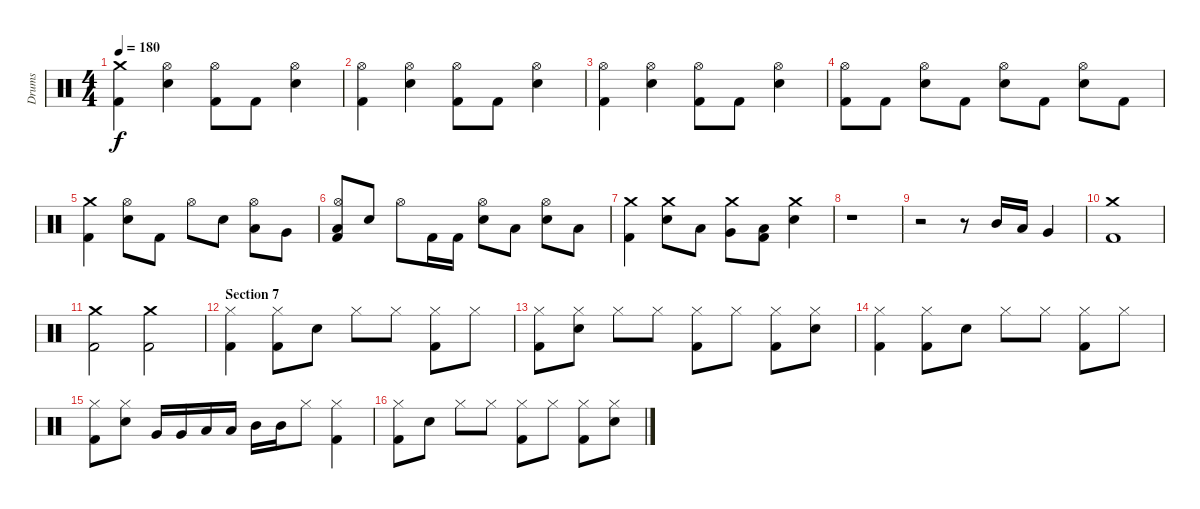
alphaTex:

\track ("Drums" "Drums") {instrument percussion}
\staff {score}
\articulation defaults
\ts (4 4)
\tempo 180
\clef neutral
\ks c
("Crash medium (hit)" "Kick (hit) 2").4{dy f} ("Hi-Hat (open)" "Electric Snare (hit)").4 ("Hi-Hat (open)" "Kick (hit) 2").8 "Kick (hit) 2".8 ("Hi-Hat (open)" "Electric Snare (hit)").4 |
("Hi-Hat (open)" "Kick (hit) 2").4 ("Hi-Hat (open)" "Electric Snare (hit)").4 ("Hi-Hat (open)" "Kick (hit) 2").8 "Kick (hit) 2".8 ("Hi-Hat (open)" "Electric Snare (hit)").4 |
("Hi-Hat (open)" "Kick (hit) 2").4 ("Hi-Hat (open)" "Electric Snare (hit)").4 ("Hi-Hat (open)" "Kick (hit) 2").8 "Kick (hit) 2".8 ("Hi-Hat (open)" "Electric Snare (hit)").4 |
("Hi-Hat (open)" "Kick (hit) 2").8 "Kick (hit) 2".8 ("Hi-Hat (open)" "Electric Snare (hit)").8 "Kick (hit) 2".8 ("Hi-Hat (open)" "Electric Snare (hit)").8 "Kick (hit) 2".8 ("Hi-Hat (open)" "Electric Snare (hit)").8 "Kick (hit) 2".8 |
("Crash medium (hit)" "Kick (hit) 2").4 ("Hi-Hat (open)" "Electric Snare (hit)").8 "Kick (hit) 2".8 "Hi-Hat (open)".8 "Electric Snare (hit)".8 ("Hi-Hat (open)" "Low Tom (hit)").8 "Very Low Tom (hit)".8 |
("Hi-Hat (open)" "Low Floor Tom (hit)" "Kick (hit) 2").8 "Electric Snare (hit)".8 "Hi-Hat (open)".8 "Kick (hit) 2".16 "Kick (hit) 2".16 ("Hi-Hat (open)" "Electric Snare (hit)").8 "Low Tom (hit)".8 ("Hi-Hat (open)" "Electric Snare (hit)").8 "Low Tom (hit)".8 |
("Crash medium (hit)" "Kick (hit) 2").4 ("Crash medium (hit)" "Electric Snare (hit)").8 "Low Tom (hit)".8 ("Crash medium (hit)" "Very Low Tom (hit)").8 ("Low Floor Tom (hit)" "Kick (hit) 2").8 ("Crash medium (hit)" "Electric Snare (hit)").4 |
r.1 |
r.2 r.8 "Mid Tom (hit)".16 "Low Tom (hit)".16 "Very Low Tom (hit)".4 |
("Crash medium (hit)" "Kick (hit) 2").1 |
("Crash medium (hit)" "Kick (hit) 2").2 ("Crash medium (hit)" "Kick (hit) 2").2 |
\section ("" "Section 7")
("Hi-Hat (closed)" "Kick (hit) 2").4 ("Hi-Hat (closed)" "Kick (hit) 2").8 "Electric Snare (hit)".8 "Hi-Hat (closed)".8 "Hi-Hat (closed)".8 ("Hi-Hat (closed)" "Kick (hit) 2").8 "Hi-Hat (closed)".8 |
("Hi-Hat (closed)" "Kick (hit) 2").8 ("Hi-Hat (closed)" "Electric Snare (hit)").8 "Hi-Hat (closed)".8 "Hi-Hat (closed)".8 ("Hi-Hat (closed)" "Kick (hit) 2").8 "Hi-Hat (closed)".8 ("Hi-Hat (closed)" "Kick (hit) 2").8 ("Hi-Hat (closed)" "Electric Snare (hit)").8 |
("Hi-Hat (closed)" "Kick (hit) 2").4 ("Hi-Hat (closed)" "Kick (hit) 2").8 "Electric Snare (hit)".8 "Hi-Hat (closed)".8 "Hi-Hat (closed)".8 ("Hi-Hat (closed)" "Kick (hit) 2").8 "Hi-Hat (closed)".8 |
("Hi-Hat (closed)" "Kick (hit) 2").8 ("Hi-Hat (closed)" "Electric Snare (hit)").8 "Very Low Tom (hit)".16 "Very Low Tom (hit)".16 "Low Tom (hit)".16 "Low Tom (hit)".16 "Mid Tom (hit)".16 "Mid Tom (hit)".16 "Hi-Hat (closed)".8 ("Hi-Hat (closed)" "Kick (hit) 2").4 |
("Hi-Hat (closed)" "Kick (hit) 2").8 "Electric Snare (hit)".8 "Hi-Hat (closed)".8 "Hi-Hat (closed)".8 ("Hi-Hat (closed)" "Kick (hit) 2").8 "Hi-Hat (closed)".8 ("Hi-Hat (closed)" "Kick (hit) 2").8 ("Hi-Hat (closed)" "Electric Snare (hit)").8
